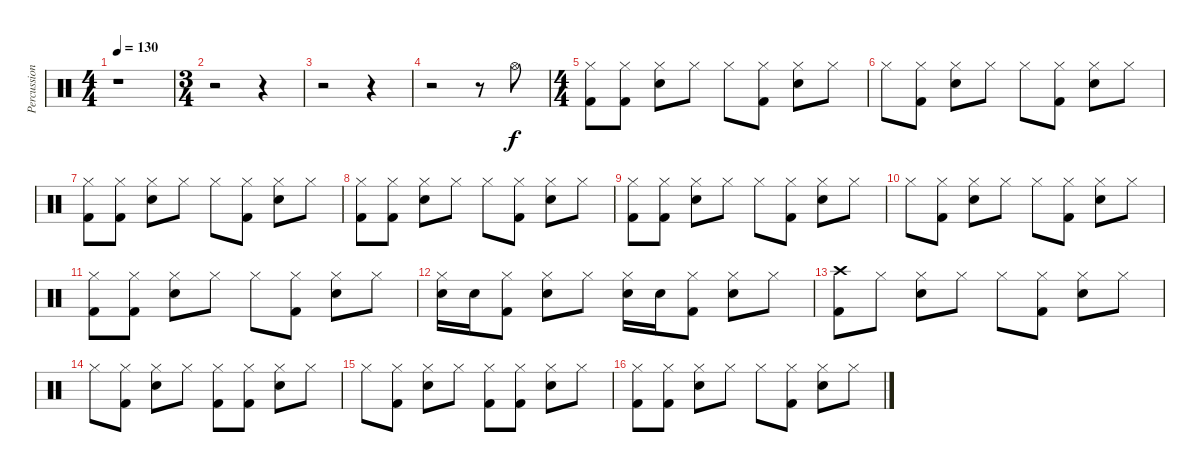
\track ("Percussion" "Percussion") {instrument percussion}
\staff {score}
\articulation defaults
\ts (4 4)
\tempo 130
\clef neutral
\ks c
r.1{dy f} |
\ts (3 4)
r.2 r.4 |
r.2 r.4 |
r.2 r.8 "Hi-Hat (open)".8 |
\ts (4 4)
("Kick (hit) 2" "Hi-Hat (closed)").8 ("Kick (hit) 2" "Hi-Hat (closed)").8 ("Snare (hit) 2" "Hi-Hat (closed)").8 "Hi-Hat (closed)".8 "Hi-Hat (closed)".8 ("Kick (hit) 2" "Hi-Hat (closed)").8 ("Snare (hit) 2" "Hi-Hat (closed)").8 "Hi-Hat (closed)".8 |
"Hi-Hat (closed)".8 ("Kick (hit) 2" "Hi-Hat (closed)").8 ("Snare (hit) 2" "Hi-Hat (closed)").8 "Hi-Hat (closed)".8 "Hi-Hat (closed)".8 ("Kick (hit) 2" "Hi-Hat (closed)").8 ("Snare (hit) 2" "Hi-Hat (closed)").8 "Hi-Hat (closed)".8 |
("Kick (hit) 2" "Hi-Hat (closed)").8 ("Kick (hit) 2" "Hi-Hat (closed)").8 ("Snare (hit) 2" "Hi-Hat (closed)").8 "Hi-Hat (closed)".8 "Hi-Hat (closed)".8 ("Kick (hit) 2" "Hi-Hat (closed)").8 ("Snare (hit) 2" "Hi-Hat (closed)").8 "Hi-Hat (closed)".8 |
("Kick (hit) 2" "Hi-Hat (closed)").8 ("Kick (hit) 2" "Hi-Hat (closed)").8 ("Snare (hit) 2" "Hi-Hat (closed)").8 "Hi-Hat (closed)".8 "Hi-Hat (closed)".8 ("Kick (hit) 2" "Hi-Hat (closed)").8 ("Snare (hit) 2" "Hi-Hat (closed)").8 "Hi-Hat (closed)".8 |
("Kick (hit) 2" "Hi-Hat (closed)").8 ("Kick (hit) 2" "Hi-Hat (closed)").8 ("Snare (hit) 2" "Hi-Hat (closed)").8 "Hi-Hat (closed)".8 "Hi-Hat (closed)".8 ("Kick (hit) 2" "Hi-Hat (closed)").8 ("Snare (hit) 2" "Hi-Hat (closed)").8 "Hi-Hat (closed)".8 |
"Hi-Hat (closed)".8 ("Kick (hit) 2" "Hi-Hat (closed)").8 ("Snare (hit) 2" "Hi-Hat (closed)").8 "Hi-Hat (closed)".8 "Hi-Hat (closed)".8 ("Kick (hit) 2" "Hi-Hat (closed)").8 ("Snare (hit) 2" "Hi-Hat (closed)").8 "Hi-Hat (closed)".8 |
("Kick (hit) 2" "Hi-Hat (closed)").8 ("Kick (hit) 2" "Hi-Hat (closed)").8 ("Snare (hit) 2" "Hi-Hat (closed)").8 "Hi-Hat (closed)".8 "Hi-Hat (closed)".8 ("Kick (hit) 2" "Hi-Hat (closed)").8 ("Snare (hit) 2" "Hi-Hat (closed)").8 "Hi-Hat (closed)".8 |
("Snare (hit) 2" "Hi-Hat (closed)").16 "Snare (hit) 2".16 ("Kick (hit) 2" "Hi-Hat (closed)").8 ("Snare (hit) 2" "Hi-Hat (closed)").8 "Hi-Hat (closed)".8 ("Snare (hit) 2" "Hi-Hat (closed)").16 "Snare (hit) 2".16 ("Kick (hit) 2" "Hi-Hat (closed)").8 ("Snare (hit) 2" "Hi-Hat (closed)").8 "Hi-Hat (closed)".8 |
("Kick (hit) 2" "Crash high (hit)").8 "Hi-Hat (closed)".8 ("Snare (hit) 2" "Hi-Hat (closed)").8 "Hi-Hat (closed)".8 "Hi-Hat (closed)".8 ("Kick (hit) 2" "Hi-Hat (closed)").8 ("Snare (hit) 2" "Hi-Hat (closed)").8 "Hi-Hat (closed)".8 |
"Hi-Hat (closed)".8 ("Kick (hit) 2" "Hi-Hat (closed)").8 ("Snare (hit) 2" "Hi-Hat (closed)").8 "Hi-Hat (closed)".8 ("Kick (hit) 2" "Hi-Hat (closed)").8 ("Kick (hit) 2" "Hi-Hat (closed)").8 ("Snare (hit) 2" "Hi-Hat (closed)").8 "Hi-Hat (closed)".8 |
"Hi-Hat (closed)".8 ("Kick (hit) 2" "Hi-Hat (closed)").8 ("Snare (hit) 2" "Hi-Hat (closed)").8 "Hi-Hat (closed)".8 ("Kick (hit) 2" "Hi-Hat (closed)").8 ("Kick (hit) 2" "Hi-Hat (closed)").8 ("Snare (hit) 2" "Hi-Hat (closed)").8 "Hi-Hat (closed)".8 |
("Kick (hit) 2" "Hi-Hat (closed)").8 ("Kick (hit) 2" "Hi-Hat (closed)").8 ("Snare (hit) 2" "Hi-Hat (closed)").8 "Hi-Hat (closed)".8 "Hi-Hat (closed)".8 ("Kick (hit) 2" "Hi-Hat (closed)").8 ("Snare (hit) 2" "Hi-Hat (closed)").8 "Hi-Hat (closed)".8
